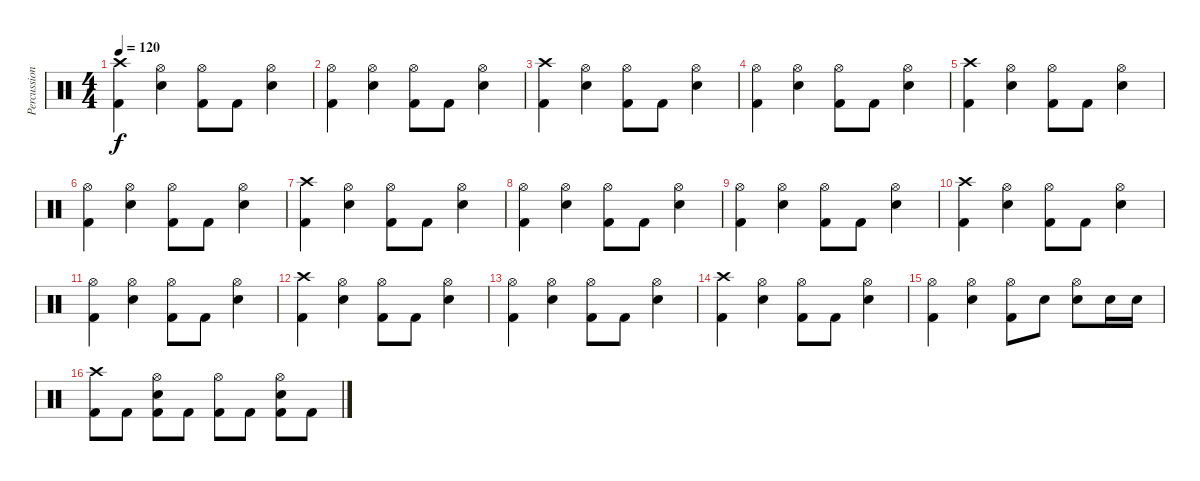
\track ("Percussion" "Percussion") {instrument percussion}
\staff {score}
\articulation defaults
\ts (4 4)
\tempo 120
\clef neutral
\ks c
("Kick (hit) 2" "Crash high (hit)").4{dy f} ("Snare (hit) 2" "Hi-Hat (open)").4 ("Kick (hit) 2" "Hi-Hat (open)").8 "Kick (hit) 2".8 ("Snare (hit) 2" "Hi-Hat (open)").4 |
("Kick (hit) 2" "Hi-Hat (open)").4 ("Snare (hit) 2" "Hi-Hat (open)").4 ("Kick (hit) 2" "Hi-Hat (open)").8 "Kick (hit) 2".8 ("Snare (hit) 2" "Hi-Hat (open)").4 |
("Kick (hit) 2" "Crash high (hit)").4 ("Snare (hit) 2" "Hi-Hat (open)").4 ("Kick (hit) 2" "Hi-Hat (open)").8 "Kick (hit) 2".8 ("Snare (hit) 2" "Hi-Hat (open)").4 |
("Kick (hit) 2" "Hi-Hat (open)").4 ("Snare (hit) 2" "Hi-Hat (open)").4 ("Kick (hit) 2" "Hi-Hat (open)").8 "Kick (hit) 2".8 ("Snare (hit) 2" "Hi-Hat (open)").4 |
("Kick (hit) 2" "Crash high (hit)").4 ("Snare (hit) 2" "Hi-Hat (open)").4 ("Kick (hit) 2" "Hi-Hat (open)").8 "Kick (hit) 2".8 ("Snare (hit) 2" "Hi-Hat (open)").4 |
("Kick (hit) 2" "Hi-Hat (open)").4 ("Snare (hit) 2" "Hi-Hat (open)").4 ("Kick (hit) 2" "Hi-Hat (open)").8 "Kick (hit) 2".8 ("Snare (hit) 2" "Hi-Hat (open)").4 |
("Kick (hit) 2" "Crash high (hit)").4 ("Snare (hit) 2" "Hi-Hat (open)").4 ("Kick (hit) 2" "Hi-Hat (open)").8 "Kick (hit) 2".8 ("Snare (hit) 2" "Hi-Hat (open)").4 |
("Kick (hit) 2" "Hi-Hat (open)").4 ("Snare (hit) 2" "Hi-Hat (open)").4 ("Kick (hit) 2" "Hi-Hat (open)").8 "Kick (hit) 2".8 ("Snare (hit) 2" "Hi-Hat (open)").4 |
("Kick (hit) 2" "Hi-Hat (open)").4 ("Snare (hit) 2" "Hi-Hat (open)").4 ("Kick (hit) 2" "Hi-Hat (open)").8 "Kick (hit) 2".8 ("Snare (hit) 2" "Hi-Hat (open)").4 |
("Kick (hit) 2" "Crash high (hit)").4 ("Snare (hit) 2" "Hi-Hat (open)").4 ("Kick (hit) 2" "Hi-Hat (open)").8 "Kick (hit) 2".8 ("Snare (hit) 2" "Hi-Hat (open)").4 |
("Kick (hit) 2" "Hi-Hat (open)").4 ("Snare (hit) 2" "Hi-Hat (open)").4 ("Kick (hit) 2" "Hi-Hat (open)").8 "Kick (hit) 2".8 ("Snare (hit) 2" "Hi-Hat (open)").4 |
("Kick (hit) 2" "Crash high (hit)").4 ("Snare (hit) 2" "Hi-Hat (open)").4 ("Kick (hit) 2" "Hi-Hat (open)").8 "Kick (hit) 2".8 ("Snare (hit) 2" "Hi-Hat (open)").4 |
("Kick (hit) 2" "Hi-Hat (open)").4 ("Snare (hit) 2" "Hi-Hat (open)").4 ("Kick (hit) 2" "Hi-Hat (open)").8 "Kick (hit) 2".8 ("Snare (hit) 2" "Hi-Hat (open)").4 |
("Kick (hit) 2" "Crash high (hit)").4 ("Snare (hit) 2" "Hi-Hat (open)").4 ("Kick (hit) 2" "Hi-Hat (open)").8 "Kick (hit) 2".8 ("Snare (hit) 2" "Hi-Hat (open)").4 |
("Kick (hit) 2" "Hi-Hat (open)").4 ("Snare (hit) 2" "Hi-Hat (open)").4 ("Kick (hit) 2" "Hi-Hat (open)").8 "Snare (hit) 2".8 ("Snare (hit) 2" "Hi-Hat (open)").8 "Snare (hit) 2".16 "Snare (hit) 2".16 |
("Kick (hit) 2" "Crash high (hit)").8 "Kick (hit) 2".8 ("Kick (hit) 2" "Snare (hit) 2" "Hi-Hat (open)").8 "Kick (hit) 2".8 ("Kick (hit) 2" "Hi-Hat (open)").8 "Kick (hit) 2".8 ("Kick (hit) 2" "Snare (hit) 2" "Hi-Hat (open)").8 "Kick (hit) 2".8
